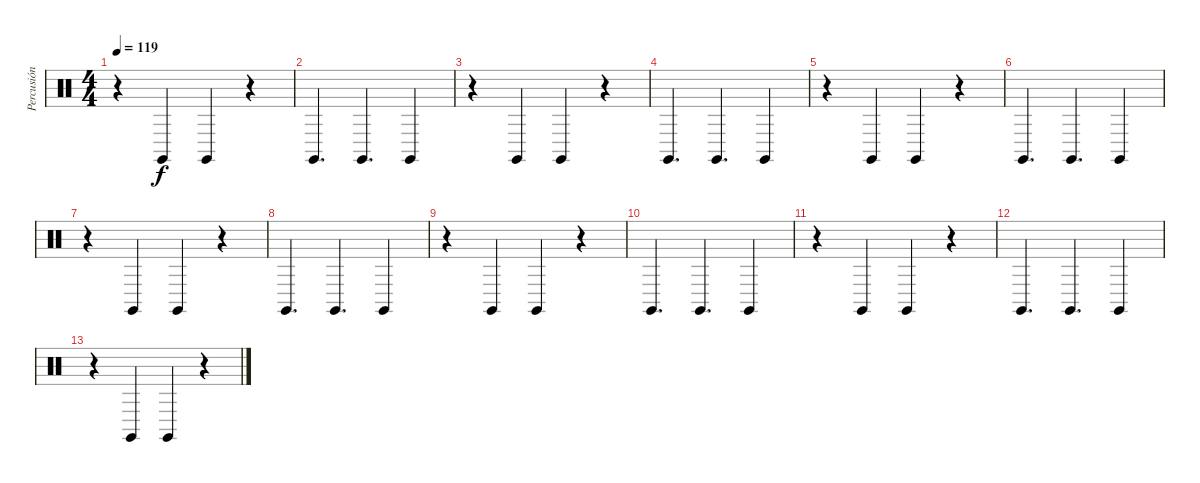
\track ("Percusión" "Percusión") {instrument percussion}
\staff {score}
\articulation defaults
\ts (4 4)
\tempo 119
\clef neutral
\ks c
r.4{dy f} "Claves (hit)".4 "Claves (hit)".4 r.4 |
"Claves (hit)".4{d} "Claves (hit)".4{d} "Claves (hit)".4 |
r.4 "Claves (hit)".4 "Claves (hit)".4 r.4 |
"Claves (hit)".4{d} "Claves (hit)".4{d} "Claves (hit)".4 |
r.4 "Claves (hit)".4 "Claves (hit)".4 r.4 |
"Claves (hit)".4{d} "Claves (hit)".4{d} "Claves (hit)".4 |
r.4 "Claves (hit)".4 "Claves (hit)".4 r.4 |
"Claves (hit)".4{d} "Claves (hit)".4{d} "Claves (hit)".4 |
r.4 "Claves (hit)".4 "Claves (hit)".4 r.4 |
"Claves (hit)".4{d} "Claves (hit)".4{d} "Claves (hit)".4 |
r.4 "Claves (hit)".4 "Claves (hit)".4 r.4 |
"Claves (hit)".4{d} "Claves (hit)".4{d} "Claves (hit)".4 |
r.4 "Claves (hit)".4 "Claves (hit)".4 r.4
